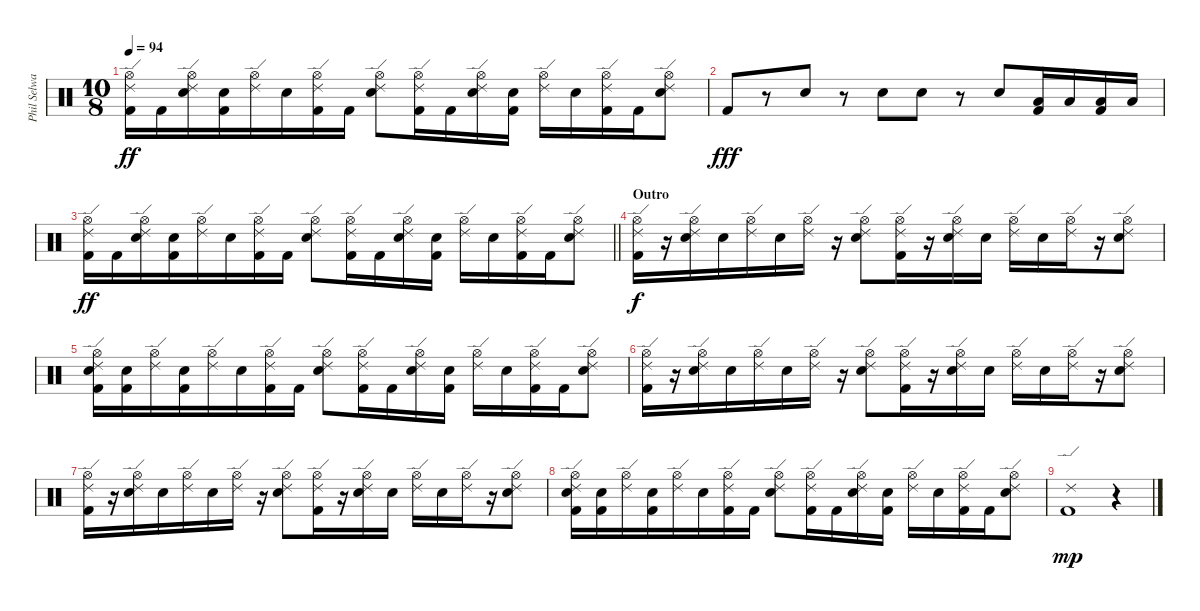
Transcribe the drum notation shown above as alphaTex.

\track ("Phil Selway" "Phil Selwa") {instrument percussion}
\staff {score}
\articulation defaults
\ts (10 8)
\tempo 94
\clef neutral
\ks c
("Hi-Hat (open)" "Ride (edge) 2" "Kick (hit) 2").16{dy ff} "Kick (hit) 2".16 ("Hi-Hat (open)" "Ride (edge) 2" "Electric Snare (hit)").16 ("Electric Snare (hit)" "Kick (hit) 2").16 ("Hi-Hat (open)" "Ride (edge) 2").16 "Electric Snare (hit)".16 ("Hi-Hat (open)" "Ride (edge) 2" "Kick (hit) 2").16 "Kick (hit) 2".16 ("Hi-Hat (open)" "Ride (edge) 2" "Electric Snare (hit)").8 ("Hi-Hat (open)" "Ride (edge) 2" "Kick (hit) 2").16 "Kick (hit) 2".16 ("Hi-Hat (open)" "Ride (edge) 2" "Electric Snare (hit)").16 ("Electric Snare (hit)" "Kick (hit) 2").16 ("Hi-Hat (open)" "Ride (edge) 2").16 "Electric Snare (hit)".16 ("Hi-Hat (open)" "Ride (edge) 2" "Kick (hit) 2").16 "Kick (hit) 2".16 ("Hi-Hat (open)" "Ride (edge) 2" "Electric Snare (hit)").8 |
"Kick (hit) 2".8{dy fff} r.8 "Electric Snare (hit)".8 r.8 "Electric Snare (hit)".8 "Electric Snare (hit)".8 r.8 "Electric Snare (hit)".8 ("Low Tom (hit)" "Kick (hit) 2").16 "Low Tom (hit)".16 ("Low Tom (hit)" "Kick (hit) 2").16 "Low Tom (hit)".16 |
\barLineRight lightlight
("Hi-Hat (open)" "Ride (edge) 2" "Kick (hit) 2").16{dy ff} "Kick (hit) 2".16 ("Hi-Hat (open)" "Ride (edge) 2" "Electric Snare (hit)").16 ("Electric Snare (hit)" "Kick (hit) 2").16 ("Hi-Hat (open)" "Ride (edge) 2").16 "Electric Snare (hit)".16 ("Hi-Hat (open)" "Ride (edge) 2" "Kick (hit) 2").16 "Kick (hit) 2".16 ("Hi-Hat (open)" "Ride (edge) 2" "Electric Snare (hit)").8 ("Hi-Hat (open)" "Ride (edge) 2" "Kick (hit) 2").16 "Kick (hit) 2".16 ("Hi-Hat (open)" "Ride (edge) 2" "Electric Snare (hit)").16 ("Electric Snare (hit)" "Kick (hit) 2").16 ("Hi-Hat (open)" "Ride (edge) 2").16 "Electric Snare (hit)".16 ("Hi-Hat (open)" "Ride (edge) 2" "Kick (hit) 2").16 "Kick (hit) 2".16 ("Hi-Hat (open)" "Ride (edge) 2" "Electric Snare (hit)").8 |
\section ("" "Outro")
("Hi-Hat (open)" "Ride (edge) 2" "Kick (hit) 2").16{dy f} r.16 ("Hi-Hat (open)" "Ride (edge) 2" "Electric Snare (hit)").16 "Electric Snare (hit)".16 ("Hi-Hat (open)" "Ride (edge) 2").16 "Electric Snare (hit)".16 ("Hi-Hat (open)" "Ride (edge) 2").16 r.16 ("Hi-Hat (open)" "Ride (edge) 2" "Electric Snare (hit)").8 ("Hi-Hat (open)" "Ride (edge) 2" "Kick (hit) 2").16 r.16 ("Hi-Hat (open)" "Ride (edge) 2" "Electric Snare (hit)").16 "Electric Snare (hit)".16 ("Hi-Hat (open)" "Ride (edge) 2").16 "Electric Snare (hit)".16 ("Hi-Hat (open)" "Ride (edge) 2").16 r.16 ("Hi-Hat (open)" "Ride (edge) 2" "Electric Snare (hit)").8 |
("Hi-Hat (open)" "Ride (edge) 2" "Electric Snare (hit)" "Kick (hit) 2").16 ("Electric Snare (hit)" "Kick (hit) 2").16 ("Hi-Hat (open)" "Ride (edge) 2").16 ("Electric Snare (hit)" "Kick (hit) 2").16 ("Hi-Hat (open)" "Ride (edge) 2").16 "Electric Snare (hit)".16 ("Hi-Hat (open)" "Ride (edge) 2" "Kick (hit) 2").16 "Kick (hit) 2".16 ("Hi-Hat (open)" "Ride (edge) 2" "Electric Snare (hit)").8 ("Hi-Hat (open)" "Ride (edge) 2" "Kick (hit) 2").16 "Kick (hit) 2".16 ("Hi-Hat (open)" "Ride (edge) 2" "Electric Snare (hit)").16 ("Electric Snare (hit)" "Kick (hit) 2").16 ("Hi-Hat (open)" "Ride (edge) 2").16 "Electric Snare (hit)".16 ("Hi-Hat (open)" "Ride (edge) 2" "Kick (hit) 2").16 "Kick (hit) 2".16 ("Hi-Hat (open)" "Ride (edge) 2" "Electric Snare (hit)").8 |
("Hi-Hat (open)" "Ride (edge) 2" "Kick (hit) 2").16 r.16 ("Hi-Hat (open)" "Ride (edge) 2" "Electric Snare (hit)").16 "Electric Snare (hit)".16 ("Hi-Hat (open)" "Ride (edge) 2").16 "Electric Snare (hit)".16 ("Hi-Hat (open)" "Ride (edge) 2").16 r.16 ("Hi-Hat (open)" "Ride (edge) 2" "Electric Snare (hit)").8 ("Hi-Hat (open)" "Ride (edge) 2" "Kick (hit) 2").16 r.16 ("Hi-Hat (open)" "Ride (edge) 2" "Electric Snare (hit)").16 "Electric Snare (hit)".16 ("Hi-Hat (open)" "Ride (edge) 2").16 "Electric Snare (hit)".16 ("Hi-Hat (open)" "Ride (edge) 2").16 r.16 ("Hi-Hat (open)" "Ride (edge) 2" "Electric Snare (hit)").8 |
("Hi-Hat (open)" "Ride (edge) 2" "Kick (hit) 2").16 r.16 ("Hi-Hat (open)" "Ride (edge) 2" "Electric Snare (hit)").16 "Electric Snare (hit)".16 ("Hi-Hat (open)" "Ride (edge) 2").16 "Electric Snare (hit)".16 ("Hi-Hat (open)" "Ride (edge) 2").16 r.16 ("Hi-Hat (open)" "Ride (edge) 2" "Electric Snare (hit)").8 ("Hi-Hat (open)" "Ride (edge) 2" "Kick (hit) 2").16 r.16 ("Hi-Hat (open)" "Ride (edge) 2" "Electric Snare (hit)").16 "Electric Snare (hit)".16 ("Hi-Hat (open)" "Ride (edge) 2").16 "Electric Snare (hit)".16 ("Hi-Hat (open)" "Ride (edge) 2").16 r.16 ("Hi-Hat (open)" "Ride (edge) 2" "Electric Snare (hit)").8 |
("Hi-Hat (open)" "Ride (edge) 2" "Electric Snare (hit)" "Kick (hit) 2").16 ("Electric Snare (hit)" "Kick (hit) 2").16 ("Hi-Hat (open)" "Ride (edge) 2").16 ("Electric Snare (hit)" "Kick (hit) 2").16 ("Hi-Hat (open)" "Ride (edge) 2").16 "Electric Snare (hit)".16 ("Hi-Hat (open)" "Ride (edge) 2" "Kick (hit) 2").16 "Kick (hit) 2".16 ("Hi-Hat (open)" "Ride (edge) 2" "Electric Snare (hit)").8 ("Hi-Hat (open)" "Ride (edge) 2" "Kick (hit) 2").16 "Kick (hit) 2".16 ("Hi-Hat (open)" "Ride (edge) 2" "Electric Snare (hit)").16 ("Electric Snare (hit)" "Kick (hit) 2").16 ("Hi-Hat (open)" "Ride (edge) 2").16 "Electric Snare (hit)".16 ("Hi-Hat (open)" "Ride (edge) 2" "Kick (hit) 2").16 "Kick (hit) 2".16 ("Hi-Hat (open)" "Ride (edge) 2" "Electric Snare (hit)").8 |
("Ride (edge) 2" "Kick (hit) 2").1{dy mp} r.4
